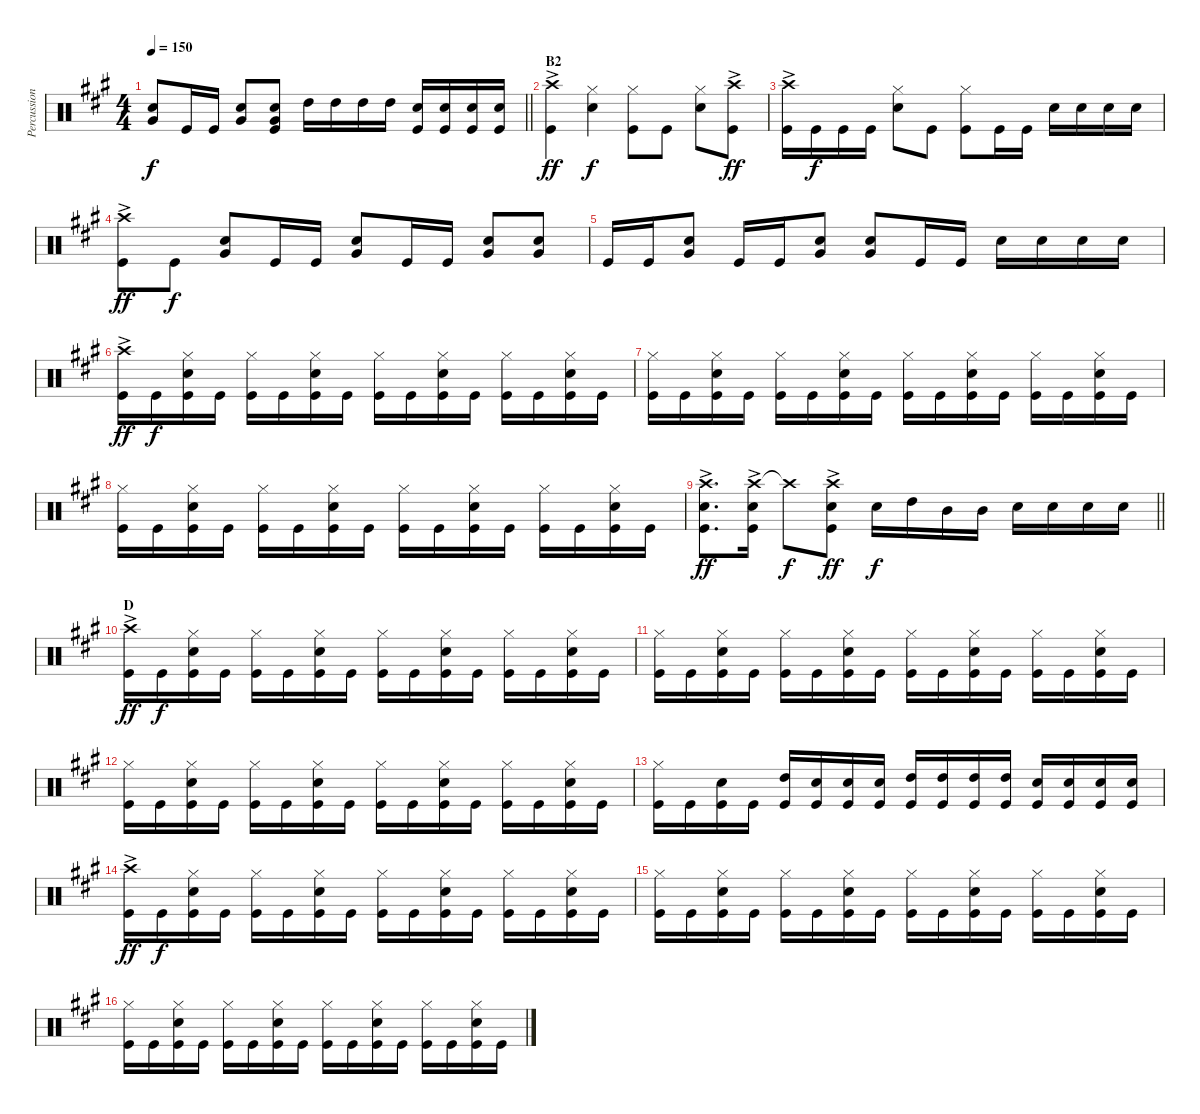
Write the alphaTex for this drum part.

\track ("Percussion" "Percussion") {instrument percussion}
\staff {score}
\articulation defaults
\ts (4 4)
\tempo 150
\clef neutral
\barLineRight lightlight
\ks a
("Snare (hit) 2" "Very Low Tom (hit)").8{dy f} "Kick (hit)".16 "Kick (hit)".16 ("Snare (hit) 2" "Very Low Tom (hit)").8 ("Snare (hit) 2" "Very Low Tom (hit)" "Kick (hit)").8 "High Tom (hit)".16 "High Tom (hit)".16 "High Tom (hit)".16 "High Tom (hit)".16 ("Snare (hit) 2" "Kick (hit)").16 ("Snare (hit) 2" "Kick (hit)").16 ("Kick (hit)" "Snare (hit) 2").16 ("Snare (hit) 2" "Kick (hit)").16 |
\section ("" "B2")
("Crash high (hit)"{ac} "Kick (hit)").4{dy ff} ("Hi-Hat (closed)" "Snare (hit) 2").4{dy f} ("Hi-Hat (closed)" "Kick (hit)").8 "Kick (hit)".8 ("Hi-Hat (closed)" "Snare (hit) 2").8 ("Crash high (hit)"{ac} "Kick (hit)").8{dy ff} |
("Crash high (hit)"{ac} "Kick (hit)").16 "Kick (hit)".16{dy f} "Kick (hit)".16 "Kick (hit)".16 ("Hi-Hat (closed)" "Snare (hit) 2").8 "Kick (hit)".8 ("Hi-Hat (closed)" "Kick (hit)").8 "Kick (hit)".16 "Kick (hit)".16 "Snare (hit) 2".16 "Snare (hit) 2".16 "Snare (hit) 2".16 "Snare (hit) 2".16 |
("Crash high (hit)"{ac} "Kick (hit)").8{dy ff} "Kick (hit)".8{dy f} ("Snare (hit) 2" "Very Low Tom (hit)").8 "Kick (hit)".16 "Kick (hit)".16 ("Snare (hit) 2" "Very Low Tom (hit)").8 "Kick (hit)".16 "Kick (hit)".16 ("Snare (hit) 2" "Very Low Tom (hit)").8 ("Snare (hit) 2" "Very Low Tom (hit)").8 |
"Kick (hit)".16 "Kick (hit)".16 ("Snare (hit) 2" "Very Low Tom (hit)").8 "Kick (hit)".16 "Kick (hit)".16 ("Snare (hit) 2" "Very Low Tom (hit)").8 ("Snare (hit) 2" "Very Low Tom (hit)").8 "Kick (hit)".16 "Kick (hit)".16 "Snare (hit) 2".16 "Snare (hit) 2".16 "Snare (hit) 2".16 "Snare (hit) 2".16 |
("Crash high (hit)"{ac} "Kick (hit)").16{dy ff} "Kick (hit)".16{dy f} ("Hi-Hat (closed)" "Snare (hit) 2" "Kick (hit)").16 "Kick (hit)".16 ("Hi-Hat (closed)" "Kick (hit)").16 "Kick (hit)".16 ("Kick (hit)" "Hi-Hat (closed)" "Snare (hit) 2").16 "Kick (hit)".16 ("Kick (hit)" "Hi-Hat (closed)").16 "Kick (hit)".16 ("Kick (hit)" "Hi-Hat (closed)" "Snare (hit) 2").16 "Kick (hit)".16 ("Kick (hit)" "Hi-Hat (closed)").16 "Kick (hit)".16 ("Hi-Hat (closed)" "Kick (hit)" "Snare (hit) 2").16 "Kick (hit)".16 |
("Hi-Hat (closed)" "Kick (hit)").16 "Kick (hit)".16 ("Hi-Hat (closed)" "Snare (hit) 2" "Kick (hit)").16 "Kick (hit)".16 ("Hi-Hat (closed)" "Kick (hit)").16 "Kick (hit)".16 ("Kick (hit)" "Hi-Hat (closed)" "Snare (hit) 2").16 "Kick (hit)".16 ("Kick (hit)" "Hi-Hat (closed)").16 "Kick (hit)".16 ("Kick (hit)" "Hi-Hat (closed)" "Snare (hit) 2").16 "Kick (hit)".16 ("Kick (hit)" "Hi-Hat (closed)").16 "Kick (hit)".16 ("Hi-Hat (closed)" "Kick (hit)" "Snare (hit) 2").16 "Kick (hit)".16 |
("Hi-Hat (closed)" "Kick (hit)").16 "Kick (hit)".16 ("Hi-Hat (closed)" "Snare (hit) 2" "Kick (hit)").16 "Kick (hit)".16 ("Hi-Hat (closed)" "Kick (hit)").16 "Kick (hit)".16 ("Kick (hit)" "Hi-Hat (closed)" "Snare (hit) 2").16 "Kick (hit)".16 ("Kick (hit)" "Hi-Hat (closed)").16 "Kick (hit)".16 ("Kick (hit)" "Hi-Hat (closed)" "Snare (hit) 2").16 "Kick (hit)".16 ("Kick (hit)" "Hi-Hat (closed)").16 "Kick (hit)".16 ("Hi-Hat (closed)" "Kick (hit)" "Snare (hit) 2").16 "Kick (hit)".16 |
\barLineRight lightlight
("Crash high (hit)"{ac} "Snare (hit) 2" "Kick (hit)").8{d dy ff} ("Crash high (hit)"{ac} "Snare (hit) 2" "Kick (hit)").16 "Crash high (hit)"{t}.8{dy f} ("Crash high (hit)"{ac} "Snare (hit) 2" "Kick (hit)").8{dy ff} "Snare (hit) 2".16{dy f} "High Tom (hit)".16 "Mid Tom (hit)".16 "Mid Tom (hit)".16 "Snare (hit) 2".16 "Snare (hit) 2".16 "Snare (hit) 2".16 "Snare (hit) 2".16 |
\section ("" "D")
("Crash high (hit)"{ac} "Kick (hit)").16{dy ff} "Kick (hit)".16{dy f} ("Hi-Hat (closed)" "Kick (hit)" "Snare (hit) 2").16 "Kick (hit)".16 ("Hi-Hat (closed)" "Kick (hit)").16 "Kick (hit)".16 ("Hi-Hat (closed)" "Kick (hit)" "Snare (hit) 2").16 "Kick (hit)".16 ("Kick (hit)" "Hi-Hat (closed)").16 "Kick (hit)".16 ("Kick (hit)" "Hi-Hat (closed)" "Snare (hit) 2").16 "Kick (hit)".16 ("Kick (hit)" "Hi-Hat (closed)").16 "Kick (hit)".16 ("Kick (hit)" "Hi-Hat (closed)" "Snare (hit) 2").16 "Kick (hit)".16 |
("Hi-Hat (closed)" "Kick (hit)").16 "Kick (hit)".16 ("Hi-Hat (closed)" "Kick (hit)" "Snare (hit) 2").16 "Kick (hit)".16 ("Hi-Hat (closed)" "Kick (hit)").16 "Kick (hit)".16 ("Hi-Hat (closed)" "Kick (hit)" "Snare (hit) 2").16 "Kick (hit)".16 ("Kick (hit)" "Hi-Hat (closed)").16 "Kick (hit)".16 ("Kick (hit)" "Hi-Hat (closed)" "Snare (hit) 2").16 "Kick (hit)".16 ("Kick (hit)" "Hi-Hat (closed)").16 "Kick (hit)".16 ("Kick (hit)" "Hi-Hat (closed)" "Snare (hit) 2").16 "Kick (hit)".16 |
("Hi-Hat (closed)" "Kick (hit)").16 "Kick (hit)".16 ("Hi-Hat (closed)" "Kick (hit)" "Snare (hit) 2").16 "Kick (hit)".16 ("Hi-Hat (closed)" "Kick (hit)").16 "Kick (hit)".16 ("Hi-Hat (closed)" "Kick (hit)" "Snare (hit) 2").16 "Kick (hit)".16 ("Kick (hit)" "Hi-Hat (closed)").16 "Kick (hit)".16 ("Kick (hit)" "Hi-Hat (closed)" "Snare (hit) 2").16 "Kick (hit)".16 ("Kick (hit)" "Hi-Hat (closed)").16 "Kick (hit)".16 ("Kick (hit)" "Hi-Hat (closed)" "Snare (hit) 2").16 "Kick (hit)".16 |
("Hi-Hat (closed)" "Kick (hit)").16 "Kick (hit)".16 ("Snare (hit) 2" "Kick (hit)").16 "Kick (hit)".16 ("Kick (hit)" "High Tom (hit)").16 ("Kick (hit)" "Snare (hit) 2").16 ("Kick (hit)" "Snare (hit) 2").16 ("Kick (hit)" "Snare (hit) 2").16 ("Kick (hit)" "High Tom (hit)").16 ("Kick (hit)" "High Tom (hit)").16 ("Kick (hit)" "High Tom (hit)").16 ("Kick (hit)" "High Tom (hit)").16 ("Kick (hit)" "Snare (hit) 2").16 ("Kick (hit)" "Snare (hit) 2").16 ("Kick (hit)" "Snare (hit) 2").16 ("Kick (hit)" "Snare (hit) 2").16 |
("Crash high (hit)"{ac} "Kick (hit)").16{dy ff} "Kick (hit)".16{dy f} ("Hi-Hat (closed)" "Kick (hit)" "Snare (hit) 2").16 "Kick (hit)".16 ("Hi-Hat (closed)" "Kick (hit)").16 "Kick (hit)".16 ("Hi-Hat (closed)" "Kick (hit)" "Snare (hit) 2").16 "Kick (hit)".16 ("Kick (hit)" "Hi-Hat (closed)").16 "Kick (hit)".16 ("Kick (hit)" "Hi-Hat (closed)" "Snare (hit) 2").16 "Kick (hit)".16 ("Kick (hit)" "Hi-Hat (closed)").16 "Kick (hit)".16 ("Kick (hit)" "Hi-Hat (closed)" "Snare (hit) 2").16 "Kick (hit)".16 |
("Hi-Hat (closed)" "Kick (hit)").16 "Kick (hit)".16 ("Hi-Hat (closed)" "Kick (hit)" "Snare (hit) 2").16 "Kick (hit)".16 ("Hi-Hat (closed)" "Kick (hit)").16 "Kick (hit)".16 ("Hi-Hat (closed)" "Kick (hit)" "Snare (hit) 2").16 "Kick (hit)".16 ("Kick (hit)" "Hi-Hat (closed)").16 "Kick (hit)".16 ("Kick (hit)" "Hi-Hat (closed)" "Snare (hit) 2").16 "Kick (hit)".16 ("Kick (hit)" "Hi-Hat (closed)").16 "Kick (hit)".16 ("Kick (hit)" "Hi-Hat (closed)" "Snare (hit) 2").16 "Kick (hit)".16 |
("Hi-Hat (closed)" "Kick (hit)").16 "Kick (hit)".16 ("Hi-Hat (closed)" "Kick (hit)" "Snare (hit) 2").16 "Kick (hit)".16 ("Hi-Hat (closed)" "Kick (hit)").16 "Kick (hit)".16 ("Hi-Hat (closed)" "Kick (hit)" "Snare (hit) 2").16 "Kick (hit)".16 ("Kick (hit)" "Hi-Hat (closed)").16 "Kick (hit)".16 ("Kick (hit)" "Hi-Hat (closed)" "Snare (hit) 2").16 "Kick (hit)".16 ("Kick (hit)" "Hi-Hat (closed)").16 "Kick (hit)".16 ("Kick (hit)" "Hi-Hat (closed)" "Snare (hit) 2").16 "Kick (hit)".16
